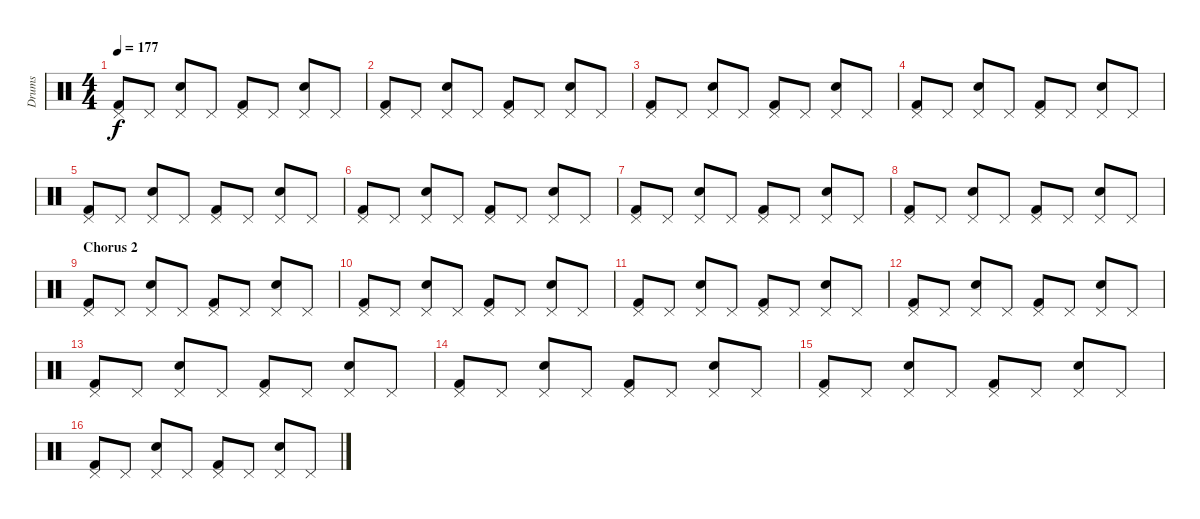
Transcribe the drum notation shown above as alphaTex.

\track ("Drums" "Drums") {instrument percussion}
\staff {score}
\articulation defaults
\ts (4 4)
\tempo 177
\clef neutral
\ks c
("Pedal Hi-Hat (hit)" "Kick (hit) 2").8{dy f} "Pedal Hi-Hat (hit)".8 ("Pedal Hi-Hat (hit)" "Electric Snare (hit)").8 "Pedal Hi-Hat (hit)".8 ("Pedal Hi-Hat (hit)" "Kick (hit) 2").8 "Pedal Hi-Hat (hit)".8 ("Pedal Hi-Hat (hit)" "Electric Snare (hit)").8 "Pedal Hi-Hat (hit)".8 |
("Pedal Hi-Hat (hit)" "Kick (hit) 2").8 "Pedal Hi-Hat (hit)".8 ("Pedal Hi-Hat (hit)" "Electric Snare (hit)").8 "Pedal Hi-Hat (hit)".8 ("Pedal Hi-Hat (hit)" "Kick (hit) 2").8 "Pedal Hi-Hat (hit)".8 ("Pedal Hi-Hat (hit)" "Electric Snare (hit)").8 "Pedal Hi-Hat (hit)".8 |
("Pedal Hi-Hat (hit)" "Kick (hit) 2").8 "Pedal Hi-Hat (hit)".8 ("Pedal Hi-Hat (hit)" "Electric Snare (hit)").8 "Pedal Hi-Hat (hit)".8 ("Pedal Hi-Hat (hit)" "Kick (hit) 2").8 "Pedal Hi-Hat (hit)".8 ("Pedal Hi-Hat (hit)" "Electric Snare (hit)").8 "Pedal Hi-Hat (hit)".8 |
("Pedal Hi-Hat (hit)" "Kick (hit) 2").8 "Pedal Hi-Hat (hit)".8 ("Pedal Hi-Hat (hit)" "Electric Snare (hit)").8 "Pedal Hi-Hat (hit)".8 ("Pedal Hi-Hat (hit)" "Kick (hit) 2").8 "Pedal Hi-Hat (hit)".8 ("Pedal Hi-Hat (hit)" "Electric Snare (hit)").8 "Pedal Hi-Hat (hit)".8 |
("Pedal Hi-Hat (hit)" "Kick (hit) 2").8 "Pedal Hi-Hat (hit)".8 ("Pedal Hi-Hat (hit)" "Electric Snare (hit)").8 "Pedal Hi-Hat (hit)".8 ("Pedal Hi-Hat (hit)" "Kick (hit) 2").8 "Pedal Hi-Hat (hit)".8 ("Pedal Hi-Hat (hit)" "Electric Snare (hit)").8 "Pedal Hi-Hat (hit)".8 |
("Pedal Hi-Hat (hit)" "Kick (hit) 2").8 "Pedal Hi-Hat (hit)".8 ("Pedal Hi-Hat (hit)" "Electric Snare (hit)").8 "Pedal Hi-Hat (hit)".8 ("Pedal Hi-Hat (hit)" "Kick (hit) 2").8 "Pedal Hi-Hat (hit)".8 ("Pedal Hi-Hat (hit)" "Electric Snare (hit)").8 "Pedal Hi-Hat (hit)".8 |
("Pedal Hi-Hat (hit)" "Kick (hit) 2").8 "Pedal Hi-Hat (hit)".8 ("Pedal Hi-Hat (hit)" "Electric Snare (hit)").8 "Pedal Hi-Hat (hit)".8 ("Pedal Hi-Hat (hit)" "Kick (hit) 2").8 "Pedal Hi-Hat (hit)".8 ("Pedal Hi-Hat (hit)" "Electric Snare (hit)").8 "Pedal Hi-Hat (hit)".8 |
("Pedal Hi-Hat (hit)" "Kick (hit) 2").8 "Pedal Hi-Hat (hit)".8 ("Pedal Hi-Hat (hit)" "Electric Snare (hit)").8 "Pedal Hi-Hat (hit)".8 ("Pedal Hi-Hat (hit)" "Kick (hit) 2").8 "Pedal Hi-Hat (hit)".8 ("Pedal Hi-Hat (hit)" "Electric Snare (hit)").8 "Pedal Hi-Hat (hit)".8 |
\section ("" "Chorus 2")
("Pedal Hi-Hat (hit)" "Kick (hit) 2").8 "Pedal Hi-Hat (hit)".8 ("Pedal Hi-Hat (hit)" "Electric Snare (hit)").8 "Pedal Hi-Hat (hit)".8 ("Pedal Hi-Hat (hit)" "Kick (hit) 2").8 "Pedal Hi-Hat (hit)".8 ("Pedal Hi-Hat (hit)" "Electric Snare (hit)").8 "Pedal Hi-Hat (hit)".8 |
("Pedal Hi-Hat (hit)" "Kick (hit) 2").8 "Pedal Hi-Hat (hit)".8 ("Pedal Hi-Hat (hit)" "Electric Snare (hit)").8 "Pedal Hi-Hat (hit)".8 ("Pedal Hi-Hat (hit)" "Kick (hit) 2").8 "Pedal Hi-Hat (hit)".8 ("Pedal Hi-Hat (hit)" "Electric Snare (hit)").8 "Pedal Hi-Hat (hit)".8 |
("Pedal Hi-Hat (hit)" "Kick (hit) 2").8 "Pedal Hi-Hat (hit)".8 ("Pedal Hi-Hat (hit)" "Electric Snare (hit)").8 "Pedal Hi-Hat (hit)".8 ("Pedal Hi-Hat (hit)" "Kick (hit) 2").8 "Pedal Hi-Hat (hit)".8 ("Pedal Hi-Hat (hit)" "Electric Snare (hit)").8 "Pedal Hi-Hat (hit)".8 |
("Pedal Hi-Hat (hit)" "Kick (hit) 2").8 "Pedal Hi-Hat (hit)".8 ("Pedal Hi-Hat (hit)" "Electric Snare (hit)").8 "Pedal Hi-Hat (hit)".8 ("Pedal Hi-Hat (hit)" "Kick (hit) 2").8 "Pedal Hi-Hat (hit)".8 ("Pedal Hi-Hat (hit)" "Electric Snare (hit)").8 "Pedal Hi-Hat (hit)".8 |
("Pedal Hi-Hat (hit)" "Kick (hit) 2").8 "Pedal Hi-Hat (hit)".8 ("Pedal Hi-Hat (hit)" "Electric Snare (hit)").8 "Pedal Hi-Hat (hit)".8 ("Pedal Hi-Hat (hit)" "Kick (hit) 2").8 "Pedal Hi-Hat (hit)".8 ("Pedal Hi-Hat (hit)" "Electric Snare (hit)").8 "Pedal Hi-Hat (hit)".8 |
("Pedal Hi-Hat (hit)" "Kick (hit) 2").8 "Pedal Hi-Hat (hit)".8 ("Pedal Hi-Hat (hit)" "Electric Snare (hit)").8 "Pedal Hi-Hat (hit)".8 ("Pedal Hi-Hat (hit)" "Kick (hit) 2").8 "Pedal Hi-Hat (hit)".8 ("Pedal Hi-Hat (hit)" "Electric Snare (hit)").8 "Pedal Hi-Hat (hit)".8 |
("Pedal Hi-Hat (hit)" "Kick (hit) 2").8 "Pedal Hi-Hat (hit)".8 ("Pedal Hi-Hat (hit)" "Electric Snare (hit)").8 "Pedal Hi-Hat (hit)".8 ("Pedal Hi-Hat (hit)" "Kick (hit) 2").8 "Pedal Hi-Hat (hit)".8 ("Pedal Hi-Hat (hit)" "Electric Snare (hit)").8 "Pedal Hi-Hat (hit)".8 |
("Pedal Hi-Hat (hit)" "Kick (hit) 2").8 "Pedal Hi-Hat (hit)".8 ("Pedal Hi-Hat (hit)" "Electric Snare (hit)").8 "Pedal Hi-Hat (hit)".8 ("Pedal Hi-Hat (hit)" "Kick (hit) 2").8 "Pedal Hi-Hat (hit)".8 ("Pedal Hi-Hat (hit)" "Electric Snare (hit)").8 "Pedal Hi-Hat (hit)".8
